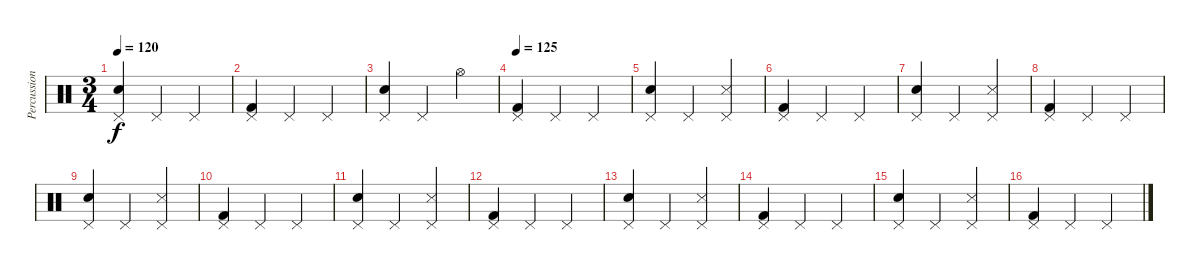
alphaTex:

\track ("Percussion" "Percussion") {instrument percussion}
\staff {score}
\articulation defaults
\ts (3 4)
\tempo 120
\clef neutral
\ks c
("Pedal Hi-Hat (hit)" "Snare (hit) 2").4{dy f} "Pedal Hi-Hat (hit)".4 "Pedal Hi-Hat (hit)".4 |
("Kick (hit) 2" "Pedal Hi-Hat (hit)").4 "Pedal Hi-Hat (hit)".4 "Pedal Hi-Hat (hit)".4 |
("Pedal Hi-Hat (hit)" "Snare (hit) 2").4 "Pedal Hi-Hat (hit)".4 "Hi-Hat (open)".4 |
\tempo 125
("Kick (hit) 2" "Pedal Hi-Hat (hit)").4 "Pedal Hi-Hat (hit)".4 "Pedal Hi-Hat (hit)".4 |
("Pedal Hi-Hat (hit)" "Snare (hit) 2").4 "Pedal Hi-Hat (hit)".4 ("Pedal Hi-Hat (hit)" "Snare (side stick) 3").4 |
("Kick (hit) 2" "Pedal Hi-Hat (hit)").4 "Pedal Hi-Hat (hit)".4 "Pedal Hi-Hat (hit)".4 |
("Pedal Hi-Hat (hit)" "Snare (hit) 2").4 "Pedal Hi-Hat (hit)".4 ("Pedal Hi-Hat (hit)" "Snare (side stick) 3").4 |
("Kick (hit) 2" "Pedal Hi-Hat (hit)").4 "Pedal Hi-Hat (hit)".4 "Pedal Hi-Hat (hit)".4 |
("Pedal Hi-Hat (hit)" "Snare (hit) 2").4 "Pedal Hi-Hat (hit)".4 ("Pedal Hi-Hat (hit)" "Snare (side stick) 3").4 |
("Kick (hit) 2" "Pedal Hi-Hat (hit)").4 "Pedal Hi-Hat (hit)".4 "Pedal Hi-Hat (hit)".4 |
("Pedal Hi-Hat (hit)" "Snare (hit) 2").4 "Pedal Hi-Hat (hit)".4 ("Pedal Hi-Hat (hit)" "Snare (side stick) 3").4 |
("Kick (hit) 2" "Pedal Hi-Hat (hit)").4 "Pedal Hi-Hat (hit)".4 "Pedal Hi-Hat (hit)".4 |
("Pedal Hi-Hat (hit)" "Snare (hit) 2").4 "Pedal Hi-Hat (hit)".4 ("Pedal Hi-Hat (hit)" "Snare (side stick) 3").4 |
("Kick (hit) 2" "Pedal Hi-Hat (hit)").4 "Pedal Hi-Hat (hit)".4 "Pedal Hi-Hat (hit)".4 |
("Pedal Hi-Hat (hit)" "Snare (hit) 2").4 "Pedal Hi-Hat (hit)".4 ("Pedal Hi-Hat (hit)" "Snare (side stick) 3").4 |
("Kick (hit) 2" "Pedal Hi-Hat (hit)").4 "Pedal Hi-Hat (hit)".4 "Pedal Hi-Hat (hit)".4
